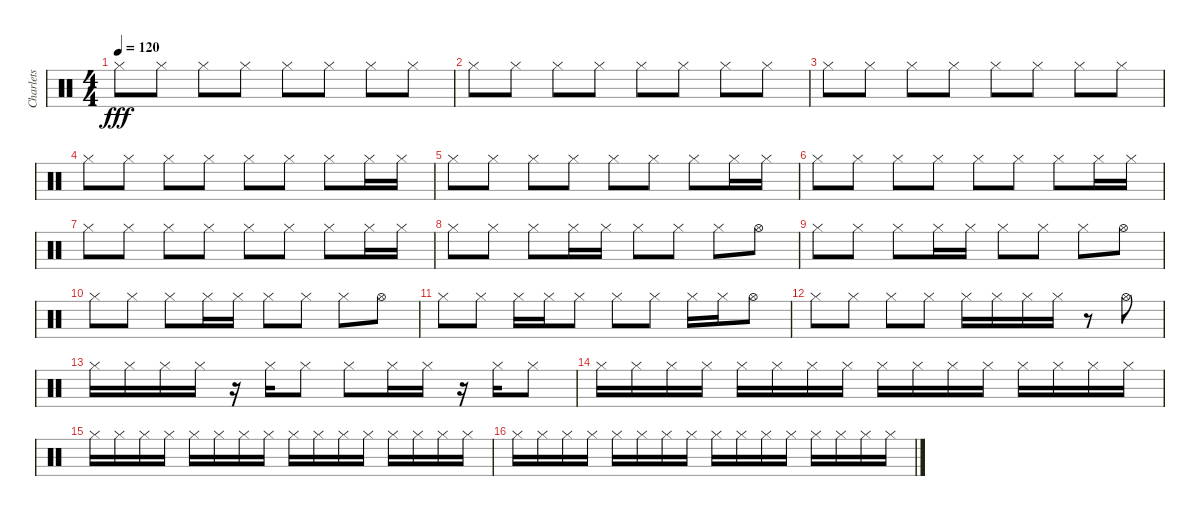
\track ("Charlets" "Charlets") {instrument percussion}
\staff {score}
\articulation defaults
\ts (4 4)
\tempo 120
\clef neutral
\ks c "Hi-Hat (closed)".8{dy fff} "Hi-Hat (closed)".8 "Hi-Hat (closed)".8 "Hi-Hat (closed)".8 "Hi-Hat (closed)".8 "Hi-Hat (closed)".8 "Hi-Hat (closed)".8 "Hi-Hat (closed)".8
|
"Hi-Hat (closed)".8 "Hi-Hat (closed)".8 "Hi-Hat (closed)".8 "Hi-Hat (closed)".8 "Hi-Hat (closed)".8 "Hi-Hat (closed)".8 "Hi-Hat (closed)".8 "Hi-Hat (closed)".8 |
"Hi-Hat (closed)".8 "Hi-Hat (closed)".8 "Hi-Hat (closed)".8 "Hi-Hat (closed)".8 "Hi-Hat (closed)".8 "Hi-Hat (closed)".8 "Hi-Hat (closed)".8 "Hi-Hat (closed)".8 |
"Hi-Hat (closed)".8 "Hi-Hat (closed)".8 "Hi-Hat (closed)".8 "Hi-Hat (closed)".8 "Hi-Hat (closed)".8 "Hi-Hat (closed)".8 "Hi-Hat (closed)".8 "Hi-Hat (closed)".16 "Hi-Hat (closed)".16 |
"Hi-Hat (closed)".8 "Hi-Hat (closed)".8 "Hi-Hat (closed)".8 "Hi-Hat (closed)".8 "Hi-Hat (closed)".8 "Hi-Hat (closed)".8 "Hi-Hat (closed)".8 "Hi-Hat (closed)".16 "Hi-Hat (closed)".16 |
"Hi-Hat (closed)".8 "Hi-Hat (closed)".8 "Hi-Hat (closed)".8 "Hi-Hat (closed)".8 "Hi-Hat (closed)".8 "Hi-Hat (closed)".8 "Hi-Hat (closed)".8 "Hi-Hat (closed)".16 "Hi-Hat (closed)".16 |
"Hi-Hat (closed)".8 "Hi-Hat (closed)".8 "Hi-Hat (closed)".8 "Hi-Hat (closed)".8 "Hi-Hat (closed)".8 "Hi-Hat (closed)".8 "Hi-Hat (closed)".8 "Hi-Hat (closed)".16 "Hi-Hat (closed)".16 |
"Hi-Hat (closed)".8 "Hi-Hat (closed)".8 "Hi-Hat (closed)".8 "Hi-Hat (closed)".16 "Hi-Hat (closed)".16 "Hi-Hat (closed)".8 "Hi-Hat (closed)".8 "Hi-Hat (closed)".8 "Hi-Hat (open)".8 |
"Hi-Hat (closed)".8 "Hi-Hat (closed)".8 "Hi-Hat (closed)".8 "Hi-Hat (closed)".16 "Hi-Hat (closed)".16 "Hi-Hat (closed)".8 "Hi-Hat (closed)".8 "Hi-Hat (closed)".8 "Hi-Hat (open)".8 |
"Hi-Hat (closed)".8 "Hi-Hat (closed)".8 "Hi-Hat (closed)".8 "Hi-Hat (closed)".16 "Hi-Hat (closed)".16 "Hi-Hat (closed)".8 "Hi-Hat (closed)".8 "Hi-Hat (closed)".8 "Hi-Hat (open)".8 |
"Hi-Hat (closed)".8 "Hi-Hat (closed)".8 "Hi-Hat (closed)".16 "Hi-Hat (closed)".16 "Hi-Hat (closed)".8 "Hi-Hat (closed)".8 "Hi-Hat (closed)".8 "Hi-Hat (closed)".16 "Hi-Hat (closed)".16 "Hi-Hat (open)".8 |
"Hi-Hat (closed)".8 "Hi-Hat (closed)".8 "Hi-Hat (closed)".8 "Hi-Hat (closed)".8 "Hi-Hat (closed)".16 "Hi-Hat (closed)".16 "Hi-Hat (closed)".16 "Hi-Hat (closed)".16 r.8 "Hi-Hat (open)".8 |
"Hi-Hat (closed)".16 "Hi-Hat (closed)".16 "Hi-Hat (closed)".16 "Hi-Hat (closed)".16 r.16 "Hi-Hat (closed)".16 "Hi-Hat (closed)".8 "Hi-Hat (closed)".8 "Hi-Hat (closed)".16 "Hi-Hat (closed)".16 r.16 "Hi-Hat (closed)".16 "Hi-Hat (closed)".8 |
"Hi-Hat (closed)".16 "Hi-Hat (closed)".16 "Hi-Hat (closed)".16 "Hi-Hat (closed)".16 "Hi-Hat (closed)".16 "Hi-Hat (closed)".16 "Hi-Hat (closed)".16 "Hi-Hat (closed)".16 "Hi-Hat (closed)".16 "Hi-Hat (closed)".16 "Hi-Hat (closed)".16 "Hi-Hat (closed)".16 "Hi-Hat (closed)".16 "Hi-Hat (closed)".16 "Hi-Hat (closed)".16 "Hi-Hat (closed)".16 |
"Hi-Hat (closed)".16 "Hi-Hat (closed)".16 "Hi-Hat (closed)".16 "Hi-Hat (closed)".16 "Hi-Hat (closed)".16 "Hi-Hat (closed)".16 "Hi-Hat (closed)".16 "Hi-Hat (closed)".16 "Hi-Hat (closed)".16 "Hi-Hat (closed)".16 "Hi-Hat (closed)".16 "Hi-Hat (closed)".16 "Hi-Hat (closed)".16 "Hi-Hat (closed)".16 "Hi-Hat (closed)".16 "Hi-Hat (closed)".16 |
"Hi-Hat (closed)".16 "Hi-Hat (closed)".16 "Hi-Hat (closed)".16 "Hi-Hat (closed)".16 "Hi-Hat (closed)".16 "Hi-Hat (closed)".16 "Hi-Hat (closed)".16 "Hi-Hat (closed)".16 "Hi-Hat (closed)".16 "Hi-Hat (closed)".16 "Hi-Hat (closed)".16 "Hi-Hat (closed)".16 "Hi-Hat (closed)".16 "Hi-Hat (closed)".16 "Hi-Hat (closed)".16 "Hi-Hat (closed)".16
